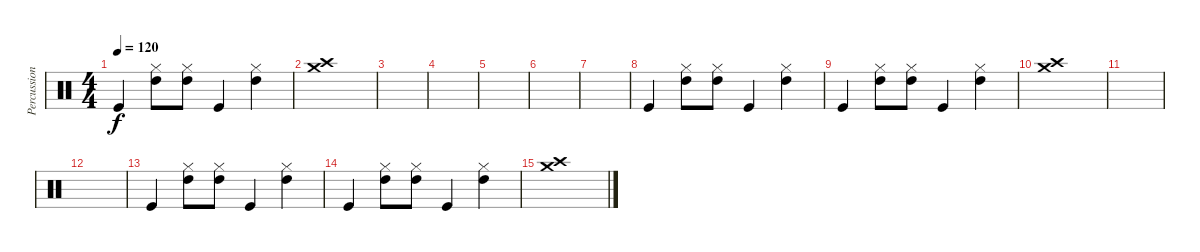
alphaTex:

\track ("Percussion" "Percussion") {instrument percussion}
\staff {score}
\articulation defaults
\ts (4 4)
\tempo 120
\clef neutral
\ks c "Kick (hit)".4{dy f}
("Hi-Hat (closed)" "High Tom (hit)").8 ("Hi-Hat (closed)" "High Tom (hit)").8 "Kick (hit)".4 ("Hi-Hat (closed)" "High Tom (hit)").4 |
("Crash high (hit)" "Crash medium (hit)").1 |
|
|
|
|
|
"Kick (hit)".4 ("Hi-Hat (closed)" "High Tom (hit)").8 ("Hi-Hat (closed)" "High Tom (hit)").8 "Kick (hit)".4 ("Hi-Hat (closed)" "High Tom (hit)").4 |
"Kick (hit)".4 ("Hi-Hat (closed)" "High Tom (hit)").8 ("Hi-Hat (closed)" "High Tom (hit)").8 "Kick (hit)".4 ("Hi-Hat (closed)" "High Tom (hit)").4 |
("Crash high (hit)" "Crash medium (hit)").1 |
|
|
"Kick (hit)".4 ("Hi-Hat (closed)" "High Tom (hit)").8 ("Hi-Hat (closed)" "High Tom (hit)").8 "Kick (hit)".4 ("Hi-Hat (closed)" "High Tom (hit)").4 |
"Kick (hit)".4 ("Hi-Hat (closed)" "High Tom (hit)").8 ("Hi-Hat (closed)" "High Tom (hit)").8 "Kick (hit)".4 ("Hi-Hat (closed)" "High Tom (hit)").4 |
("Crash high (hit)" "Crash medium (hit)").1
